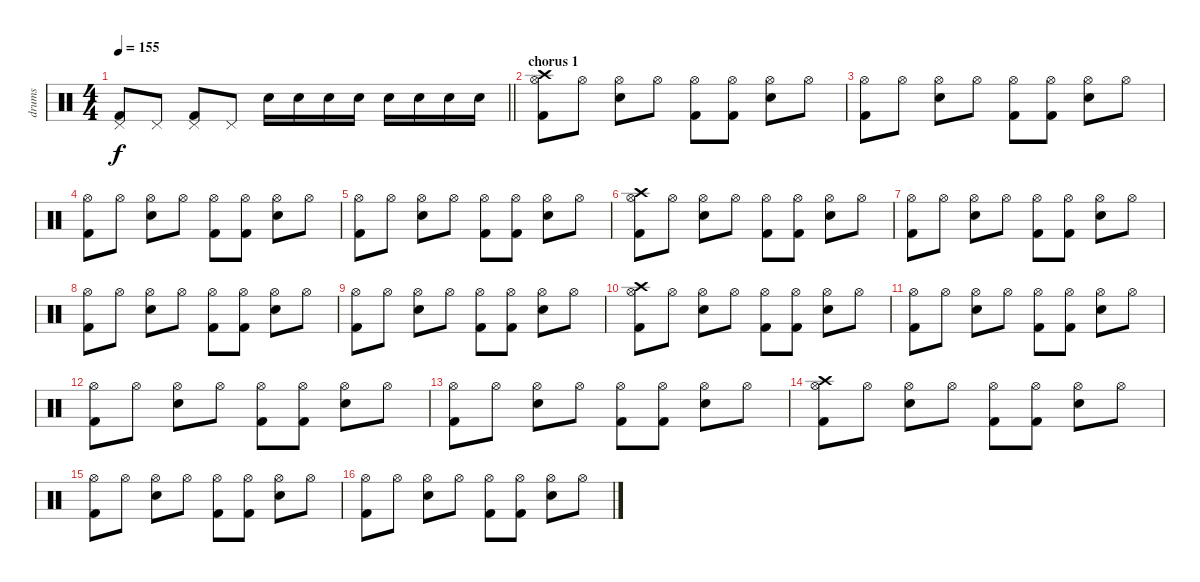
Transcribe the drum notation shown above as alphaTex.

\track ("drums" "drums") {instrument percussion}
\staff {score}
\articulation defaults
\ts (4 4)
\tempo 155
\clef neutral
\barLineRight lightlight
\ks c
("Kick (hit) 2" "Pedal Hi-Hat (hit)").8{dy f} "Pedal Hi-Hat (hit)".8 ("Kick (hit) 2" "Pedal Hi-Hat (hit)").8 "Pedal Hi-Hat (hit)".8 "Electric Snare (hit)".16 "Electric Snare (hit)".16 "Electric Snare (hit)".16 "Electric Snare (hit)".16 "Electric Snare (hit)".16 "Electric Snare (hit)".16 "Electric Snare (hit)".16 "Electric Snare (hit)".16 |
\section ("" "chorus 1")
("Kick (hit) 2" "Hi-Hat (open)" "Crash high (hit)").8 "Hi-Hat (open)".8 ("Electric Snare (hit)" "Hi-Hat (open)").8 "Hi-Hat (open)".8 ("Kick (hit) 2" "Hi-Hat (open)").8 ("Kick (hit) 2" "Hi-Hat (open)").8 ("Electric Snare (hit)" "Hi-Hat (open)").8 "Hi-Hat (open)".8 |
("Kick (hit) 2" "Hi-Hat (open)").8 "Hi-Hat (open)".8 ("Electric Snare (hit)" "Hi-Hat (open)").8 "Hi-Hat (open)".8 ("Kick (hit) 2" "Hi-Hat (open)").8 ("Kick (hit) 2" "Hi-Hat (open)").8 ("Electric Snare (hit)" "Hi-Hat (open)").8 "Hi-Hat (open)".8 |
("Kick (hit) 2" "Hi-Hat (open)").8 "Hi-Hat (open)".8 ("Electric Snare (hit)" "Hi-Hat (open)").8 "Hi-Hat (open)".8 ("Kick (hit) 2" "Hi-Hat (open)").8 ("Kick (hit) 2" "Hi-Hat (open)").8 ("Electric Snare (hit)" "Hi-Hat (open)").8 "Hi-Hat (open)".8 |
("Kick (hit) 2" "Hi-Hat (open)").8 "Hi-Hat (open)".8 ("Electric Snare (hit)" "Hi-Hat (open)").8 "Hi-Hat (open)".8 ("Kick (hit) 2" "Hi-Hat (open)").8 ("Kick (hit) 2" "Hi-Hat (open)").8 ("Electric Snare (hit)" "Hi-Hat (open)").8 "Hi-Hat (open)".8 |
("Kick (hit) 2" "Hi-Hat (open)" "Crash high (hit)").8 "Hi-Hat (open)".8 ("Electric Snare (hit)" "Hi-Hat (open)").8 "Hi-Hat (open)".8 ("Kick (hit) 2" "Hi-Hat (open)").8 ("Kick (hit) 2" "Hi-Hat (open)").8 ("Electric Snare (hit)" "Hi-Hat (open)").8 "Hi-Hat (open)".8 |
("Kick (hit) 2" "Hi-Hat (open)").8 "Hi-Hat (open)".8 ("Electric Snare (hit)" "Hi-Hat (open)").8 "Hi-Hat (open)".8 ("Kick (hit) 2" "Hi-Hat (open)").8 ("Kick (hit) 2" "Hi-Hat (open)").8 ("Electric Snare (hit)" "Hi-Hat (open)").8 "Hi-Hat (open)".8 |
("Kick (hit) 2" "Hi-Hat (open)").8 "Hi-Hat (open)".8 ("Electric Snare (hit)" "Hi-Hat (open)").8 "Hi-Hat (open)".8 ("Kick (hit) 2" "Hi-Hat (open)").8 ("Kick (hit) 2" "Hi-Hat (open)").8 ("Electric Snare (hit)" "Hi-Hat (open)").8 "Hi-Hat (open)".8 |
("Kick (hit) 2" "Hi-Hat (open)").8 "Hi-Hat (open)".8 ("Electric Snare (hit)" "Hi-Hat (open)").8 "Hi-Hat (open)".8 ("Kick (hit) 2" "Hi-Hat (open)").8 ("Kick (hit) 2" "Hi-Hat (open)").8 ("Electric Snare (hit)" "Hi-Hat (open)").8 "Hi-Hat (open)".8 |
("Kick (hit) 2" "Hi-Hat (open)" "Crash high (hit)").8 "Hi-Hat (open)".8 ("Electric Snare (hit)" "Hi-Hat (open)").8 "Hi-Hat (open)".8 ("Kick (hit) 2" "Hi-Hat (open)").8 ("Kick (hit) 2" "Hi-Hat (open)").8 ("Electric Snare (hit)" "Hi-Hat (open)").8 "Hi-Hat (open)".8 |
("Kick (hit) 2" "Hi-Hat (open)").8 "Hi-Hat (open)".8 ("Electric Snare (hit)" "Hi-Hat (open)").8 "Hi-Hat (open)".8 ("Kick (hit) 2" "Hi-Hat (open)").8 ("Kick (hit) 2" "Hi-Hat (open)").8 ("Electric Snare (hit)" "Hi-Hat (open)").8 "Hi-Hat (open)".8 |
("Kick (hit) 2" "Hi-Hat (open)").8 "Hi-Hat (open)".8 ("Electric Snare (hit)" "Hi-Hat (open)").8 "Hi-Hat (open)".8 ("Kick (hit) 2" "Hi-Hat (open)").8 ("Kick (hit) 2" "Hi-Hat (open)").8 ("Electric Snare (hit)" "Hi-Hat (open)").8 "Hi-Hat (open)".8 |
("Kick (hit) 2" "Hi-Hat (open)").8 "Hi-Hat (open)".8 ("Electric Snare (hit)" "Hi-Hat (open)").8 "Hi-Hat (open)".8 ("Kick (hit) 2" "Hi-Hat (open)").8 ("Kick (hit) 2" "Hi-Hat (open)").8 ("Electric Snare (hit)" "Hi-Hat (open)").8 "Hi-Hat (open)".8 |
("Kick (hit) 2" "Hi-Hat (open)" "Crash high (hit)").8 "Hi-Hat (open)".8 ("Electric Snare (hit)" "Hi-Hat (open)").8 "Hi-Hat (open)".8 ("Kick (hit) 2" "Hi-Hat (open)").8 ("Kick (hit) 2" "Hi-Hat (open)").8 ("Electric Snare (hit)" "Hi-Hat (open)").8 "Hi-Hat (open)".8 |
("Kick (hit) 2" "Hi-Hat (open)").8 "Hi-Hat (open)".8 ("Electric Snare (hit)" "Hi-Hat (open)").8 "Hi-Hat (open)".8 ("Kick (hit) 2" "Hi-Hat (open)").8 ("Kick (hit) 2" "Hi-Hat (open)").8 ("Electric Snare (hit)" "Hi-Hat (open)").8 "Hi-Hat (open)".8 |
("Kick (hit) 2" "Hi-Hat (open)").8 "Hi-Hat (open)".8 ("Electric Snare (hit)" "Hi-Hat (open)").8 "Hi-Hat (open)".8 ("Kick (hit) 2" "Hi-Hat (open)").8 ("Kick (hit) 2" "Hi-Hat (open)").8 ("Electric Snare (hit)" "Hi-Hat (open)").8 "Hi-Hat (open)".8
